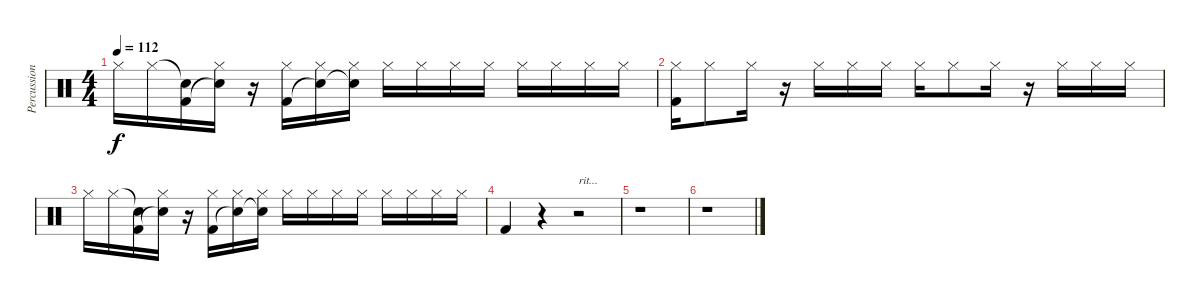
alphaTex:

\track ("Percussion" "Percussion") {instrument percussion}
\staff {score}
\articulation defaults
\ts (4 4)
\tempo 112
\clef neutral
\ks c "Hi-Hat (closed)".16{dy f} "Hi-Hat (closed)".16
("Snare (hit)"{t} "Kick (hit) 2").16 ("Hi-Hat (closed)" "Snare (hit)"{t}).16 r.16 ("Hi-Hat (closed)" "Kick (hit) 2").16 ("Hi-Hat (closed)" "Snare (hit)"{t}).16 ("Hi-Hat (closed)" "Snare (hit)"{t}).16 "Hi-Hat (closed)".16 "Hi-Hat (closed)".16 "Hi-Hat (closed)".16 "Hi-Hat (closed)".16 "Hi-Hat (closed)".16 "Hi-Hat (closed)".16 "Hi-Hat (closed)".16 "Hi-Hat (closed)".16 |
("Hi-Hat (closed)" "Kick (hit) 2").16 "Hi-Hat (closed)".8 "Hi-Hat (closed)".16 r.16 "Hi-Hat (closed)".16 "Hi-Hat (closed)".16 "Hi-Hat (closed)".16 "Hi-Hat (closed)".16 "Hi-Hat (closed)".8 "Hi-Hat (closed)".16 r.16 "Hi-Hat (closed)".16 "Hi-Hat (closed)".16 "Hi-Hat (closed)".16 |
"Hi-Hat (closed)".16 "Hi-Hat (closed)".16 ("Snare (hit)"{t} "Kick (hit) 2").16 ("Hi-Hat (closed)" "Snare (hit)"{t}).16 r.16 ("Hi-Hat (closed)" "Kick (hit) 2").16 ("Hi-Hat (closed)" "Snare (hit)"{t}).16 ("Hi-Hat (closed)" "Snare (hit)"{t}).16 "Hi-Hat (closed)".16 "Hi-Hat (closed)".16 "Hi-Hat (closed)".16 "Hi-Hat (closed)".16 "Hi-Hat (closed)".16 "Hi-Hat (closed)".16 "Hi-Hat (closed)".16 "Hi-Hat (closed)".16 |
"Kick (hit) 2".4 r.4 r.2{txt "rit..."} |
r.1 |
r.1
